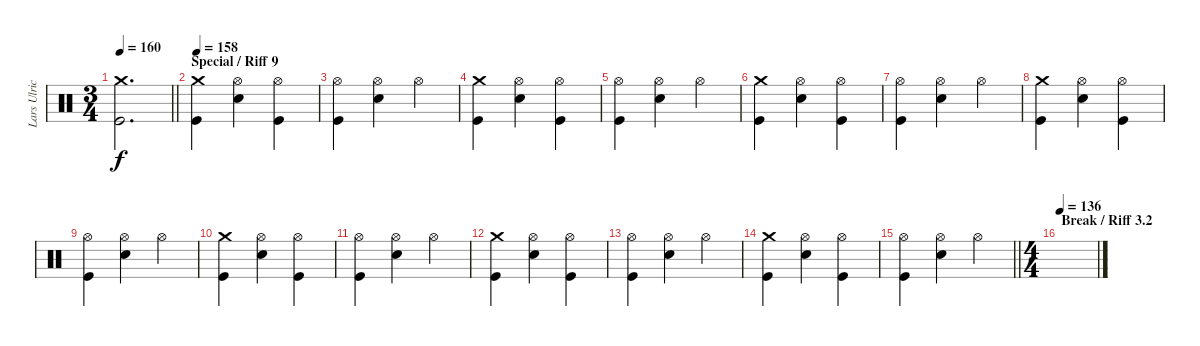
\track ("Lars Ulrich" "Lars Ulric") {instrument percussion}
\staff {score}
\articulation defaults
\ts (3 4)
\tempo 160
\clef neutral
\barLineRight lightlight
\ks c
("Crash medium (hit)" "Kick (hit)").2{d dy f} |
\section ("" "Special / Riff 9")
\tempo 158
("Crash medium (hit)" "Kick (hit)").4 ("Hi-Hat (open)" "Snare (hit) 2").4 ("Hi-Hat (open)" "Kick (hit)").4 |
("Hi-Hat (open)" "Kick (hit)").4 ("Hi-Hat (open)" "Snare (hit) 2").4 "Hi-Hat (open)".4 |
("Crash medium (hit)" "Kick (hit)").4 ("Hi-Hat (open)" "Snare (hit) 2").4 ("Hi-Hat (open)" "Kick (hit)").4 |
("Hi-Hat (open)" "Kick (hit)").4 ("Hi-Hat (open)" "Snare (hit) 2").4 "Hi-Hat (open)".4 |
("Crash medium (hit)" "Kick (hit)").4 ("Hi-Hat (open)" "Snare (hit) 2").4 ("Hi-Hat (open)" "Kick (hit)").4 |
("Hi-Hat (open)" "Kick (hit)").4 ("Hi-Hat (open)" "Snare (hit) 2").4 "Hi-Hat (open)".4 |
("Crash medium (hit)" "Kick (hit)").4 ("Hi-Hat (open)" "Snare (hit) 2").4 ("Hi-Hat (open)" "Kick (hit)").4 |
("Hi-Hat (open)" "Kick (hit)").4 ("Hi-Hat (open)" "Snare (hit) 2").4 "Hi-Hat (open)".4 |
("Crash medium (hit)" "Kick (hit)").4 ("Hi-Hat (open)" "Snare (hit) 2").4 ("Hi-Hat (open)" "Kick (hit)").4 |
("Hi-Hat (open)" "Kick (hit)").4 ("Hi-Hat (open)" "Snare (hit) 2").4 "Hi-Hat (open)".4 |
("Crash medium (hit)" "Kick (hit)").4 ("Hi-Hat (open)" "Snare (hit) 2").4 ("Hi-Hat (open)" "Kick (hit)").4 |
("Hi-Hat (open)" "Kick (hit)").4 ("Hi-Hat (open)" "Snare (hit) 2").4 "Hi-Hat (open)".4 |
("Crash medium (hit)" "Kick (hit)").4 ("Hi-Hat (open)" "Snare (hit) 2").4 ("Hi-Hat (open)" "Kick (hit)").4 |
\barLineRight lightlight
("Hi-Hat (open)" "Kick (hit)").4 ("Hi-Hat (open)" "Snare (hit) 2").4 "Hi-Hat (open)".4 |
\ts (4 4)
\section ("" "Break / Riff 3.2")
\tempo 136
